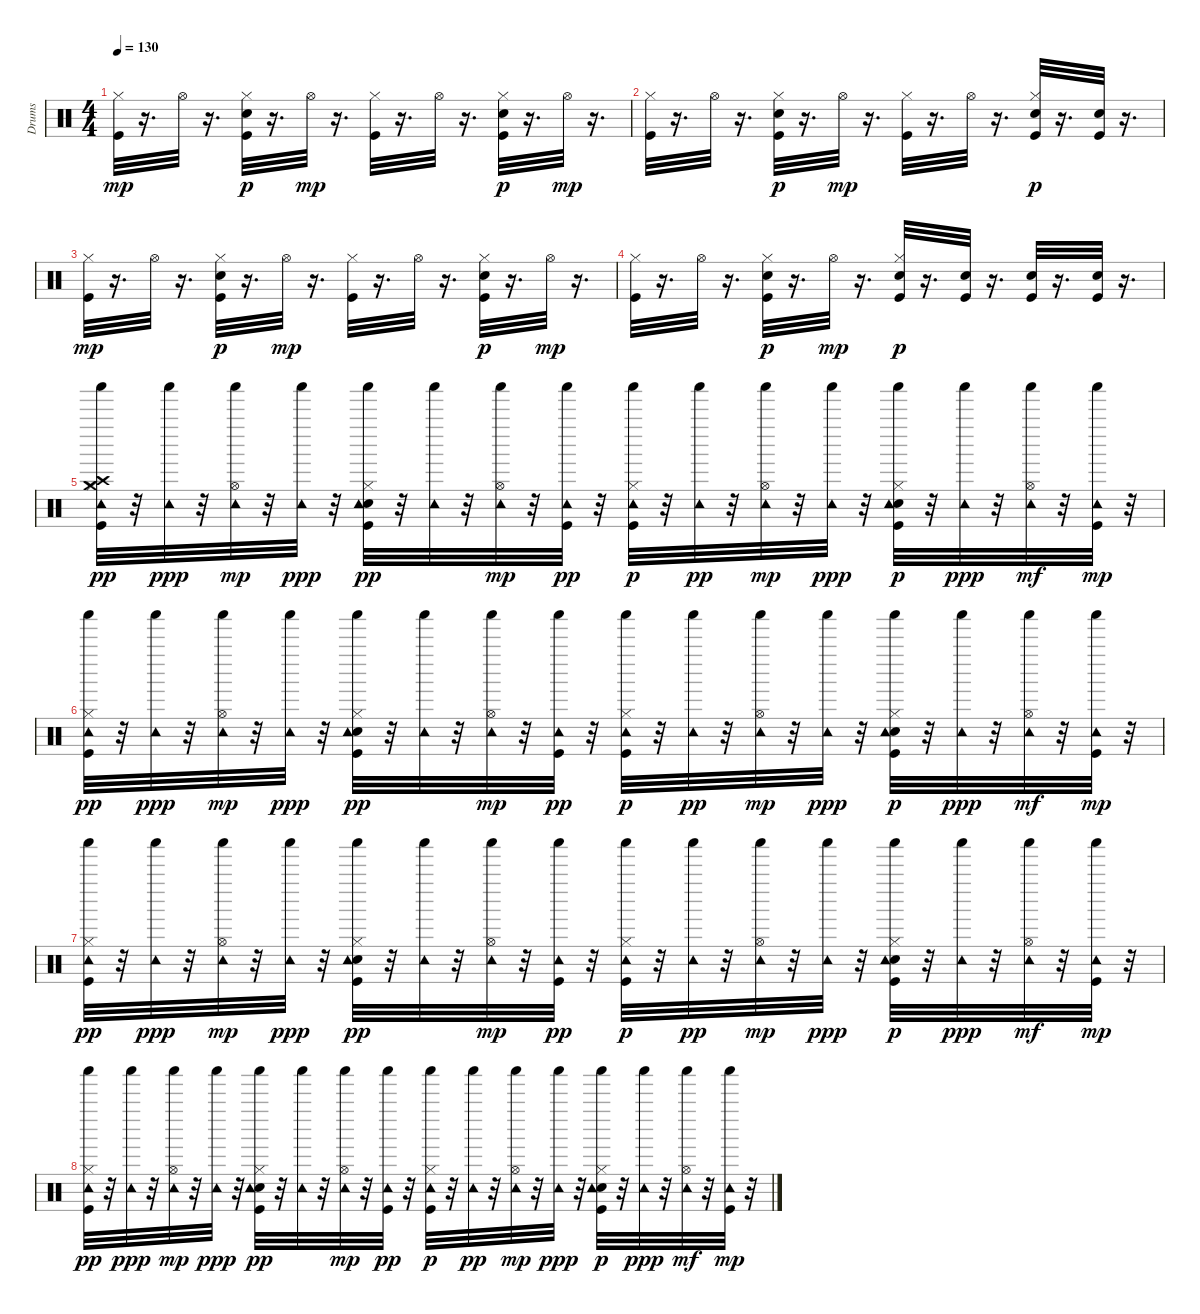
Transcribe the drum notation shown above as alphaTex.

\track ("Drums" "Drums") {instrument percussion}
\staff {score}
\articulation defaults
\ts (4 4)
\tempo 130
\clef neutral
\ks c
("Kick (hit)" "Hi-Hat (closed)").32{dy mp} r.16{d} "Hi-Hat (open)".32 r.16{d} ("Kick (hit)" "Hi-Hat (closed)" "Electric Snare (hit)").32{dy p} r.16{d} "Hi-Hat (open)".32{dy mp} r.16{d} ("Kick (hit)" "Hi-Hat (closed)").32 r.16{d} "Hi-Hat (open)".32 r.16{d} ("Kick (hit)" "Hi-Hat (closed)" "Electric Snare (hit)").32{dy p} r.16{d} "Hi-Hat (open)".32{dy mp} r.16{d} |
("Kick (hit)" "Hi-Hat (closed)").32 r.16{d} "Hi-Hat (open)".32 r.16{d} ("Kick (hit)" "Hi-Hat (closed)" "Electric Snare (hit)").32{dy p} r.16{d} "Hi-Hat (open)".32{dy mp} r.16{d} ("Kick (hit)" "Hi-Hat (closed)").32 r.16{d} "Hi-Hat (open)".32 r.16{d} ("Kick (hit)" "Hi-Hat (closed)" "Electric Snare (hit)").32{dy p} r.16{d} ("Kick (hit)" "Electric Snare (hit)").32 r.16{d} |
("Kick (hit)" "Hi-Hat (closed)").32{dy mp} r.16{d} "Hi-Hat (open)".32 r.16{d} ("Kick (hit)" "Hi-Hat (closed)" "Electric Snare (hit)").32{dy p} r.16{d} "Hi-Hat (open)".32{dy mp} r.16{d} ("Kick (hit)" "Hi-Hat (closed)").32 r.16{d} "Hi-Hat (open)".32 r.16{d} ("Kick (hit)" "Hi-Hat (closed)" "Electric Snare (hit)").32{dy p} r.16{d} "Hi-Hat (open)".32{dy mp} r.16{d} |
("Kick (hit)" "Hi-Hat (closed)").32 r.16{d} "Hi-Hat (open)".32 r.16{d} ("Kick (hit)" "Hi-Hat (closed)" "Electric Snare (hit)").32{dy p} r.16{d} "Hi-Hat (open)".32{dy mp} r.16{d} ("Kick (hit)" "Hi-Hat (closed)" "Electric Snare (hit)").32{dy p} r.16{d} ("Kick (hit)" "Electric Snare (hit)").32 r.16{d} ("Kick (hit)" "Electric Snare (hit)").32 r.16{d} ("Kick (hit)" "Electric Snare (hit)").32 r.16{d} |
("Kick (hit)" "Hi-Hat (closed)" "Crash high (hit)" "Crash medium (hit)" "Shaker (hit)" "Tambourine (hit)").32{dy pp} r.32 ("Shaker (hit)" "Tambourine (hit)").32{dy ppp} r.32 ("Hi-Hat (open)" "Shaker (hit)" "Tambourine (hit)").32{dy mp} r.32 ("Shaker (hit)" "Tambourine (hit)").32{dy ppp} r.32 ("Kick (hit)" "Hi-Hat (closed)" "Shaker (hit)" "Snare (hit) 2" "Tambourine (hit)").32{dy pp} r.32 ("Shaker (hit)" "Tambourine (hit)").32 r.32 ("Hi-Hat (open)" "Shaker (hit)" "Tambourine (hit)").32{dy mp} r.32 ("Shaker (hit)" "Kick (hit)" "Tambourine (hit)").32{dy pp} r.32 ("Kick (hit)" "Hi-Hat (closed)" "Shaker (hit)" "Tambourine (hit)").32{dy p} r.32 ("Shaker (hit)" "Tambourine (hit)").32{dy pp} r.32 ("Hi-Hat (open)" "Shaker (hit)" "Tambourine (hit)").32{dy mp} r.32 ("Shaker (hit)" "Tambourine (hit)").32{dy ppp} r.32 ("Kick (hit)" "Hi-Hat (closed)" "Shaker (hit)" "Snare (hit) 2" "Tambourine (hit)").32{dy p} r.32 ("Shaker (hit)" "Tambourine (hit)").32{dy ppp} r.32 ("Hi-Hat (open)" "Shaker (hit)" "Tambourine (hit)").32{dy mf} r.32 ("Shaker (hit)" "Tambourine (hit)" "Kick (hit)").32{dy mp} r.32 |
("Kick (hit)" "Hi-Hat (closed)" "Shaker (hit)" "Tambourine (hit)").32{dy pp} r.32 ("Shaker (hit)" "Tambourine (hit)").32{dy ppp} r.32 ("Hi-Hat (open)" "Shaker (hit)" "Tambourine (hit)").32{dy mp} r.32 ("Shaker (hit)" "Tambourine (hit)").32{dy ppp} r.32 ("Kick (hit)" "Hi-Hat (closed)" "Shaker (hit)" "Snare (hit) 2" "Tambourine (hit)").32{dy pp} r.32 ("Shaker (hit)" "Tambourine (hit)").32 r.32 ("Hi-Hat (open)" "Shaker (hit)" "Tambourine (hit)").32{dy mp} r.32 ("Shaker (hit)" "Kick (hit)" "Tambourine (hit)").32{dy pp} r.32 ("Kick (hit)" "Hi-Hat (closed)" "Shaker (hit)" "Tambourine (hit)").32{dy p} r.32 ("Shaker (hit)" "Tambourine (hit)").32{dy pp} r.32 ("Hi-Hat (open)" "Shaker (hit)" "Tambourine (hit)").32{dy mp} r.32 ("Shaker (hit)" "Tambourine (hit)").32{dy ppp} r.32 ("Kick (hit)" "Hi-Hat (closed)" "Shaker (hit)" "Snare (hit) 2" "Tambourine (hit)").32{dy p} r.32 ("Shaker (hit)" "Tambourine (hit)").32{dy ppp} r.32 ("Hi-Hat (open)" "Shaker (hit)" "Tambourine (hit)").32{dy mf} r.32 ("Shaker (hit)" "Tambourine (hit)" "Kick (hit)").32{dy mp} r.32 |
("Kick (hit)" "Hi-Hat (closed)" "Shaker (hit)" "Tambourine (hit)").32{dy pp} r.32 ("Shaker (hit)" "Tambourine (hit)").32{dy ppp} r.32 ("Hi-Hat (open)" "Shaker (hit)" "Tambourine (hit)").32{dy mp} r.32 ("Shaker (hit)" "Tambourine (hit)").32{dy ppp} r.32 ("Kick (hit)" "Hi-Hat (closed)" "Shaker (hit)" "Snare (hit) 2" "Tambourine (hit)").32{dy pp} r.32 ("Shaker (hit)" "Tambourine (hit)").32 r.32 ("Hi-Hat (open)" "Shaker (hit)" "Tambourine (hit)").32{dy mp} r.32 ("Shaker (hit)" "Kick (hit)" "Tambourine (hit)").32{dy pp} r.32 ("Kick (hit)" "Hi-Hat (closed)" "Shaker (hit)" "Tambourine (hit)").32{dy p} r.32 ("Shaker (hit)" "Tambourine (hit)").32{dy pp} r.32 ("Hi-Hat (open)" "Shaker (hit)" "Tambourine (hit)").32{dy mp} r.32 ("Shaker (hit)" "Tambourine (hit)").32{dy ppp} r.32 ("Kick (hit)" "Hi-Hat (closed)" "Shaker (hit)" "Snare (hit) 2" "Tambourine (hit)").32{dy p} r.32 ("Shaker (hit)" "Tambourine (hit)").32{dy ppp} r.32 ("Hi-Hat (open)" "Shaker (hit)" "Tambourine (hit)").32{dy mf} r.32 ("Shaker (hit)" "Tambourine (hit)" "Kick (hit)").32{dy mp} r.32 |
("Kick (hit)" "Hi-Hat (closed)" "Shaker (hit)" "Tambourine (hit)").32{dy pp} r.32 ("Shaker (hit)" "Tambourine (hit)").32{dy ppp} r.32 ("Hi-Hat (open)" "Shaker (hit)" "Tambourine (hit)").32{dy mp} r.32 ("Shaker (hit)" "Tambourine (hit)").32{dy ppp} r.32 ("Kick (hit)" "Hi-Hat (closed)" "Shaker (hit)" "Snare (hit) 2" "Tambourine (hit)").32{dy pp} r.32 ("Shaker (hit)" "Tambourine (hit)").32 r.32 ("Hi-Hat (open)" "Shaker (hit)" "Tambourine (hit)").32{dy mp} r.32 ("Shaker (hit)" "Kick (hit)" "Tambourine (hit)").32{dy pp} r.32 ("Kick (hit)" "Hi-Hat (closed)" "Shaker (hit)" "Tambourine (hit)").32{dy p} r.32 ("Shaker (hit)" "Tambourine (hit)").32{dy pp} r.32 ("Hi-Hat (open)" "Shaker (hit)" "Tambourine (hit)").32{dy mp} r.32 ("Shaker (hit)" "Tambourine (hit)").32{dy ppp} r.32 ("Kick (hit)" "Hi-Hat (closed)" "Shaker (hit)" "Snare (hit) 2" "Tambourine (hit)").32{dy p} r.32 ("Shaker (hit)" "Tambourine (hit)").32{dy ppp} r.32 ("Hi-Hat (open)" "Shaker (hit)" "Tambourine (hit)").32{dy mf} r.32 ("Shaker (hit)" "Tambourine (hit)" "Kick (hit)").32{dy mp} r.32
